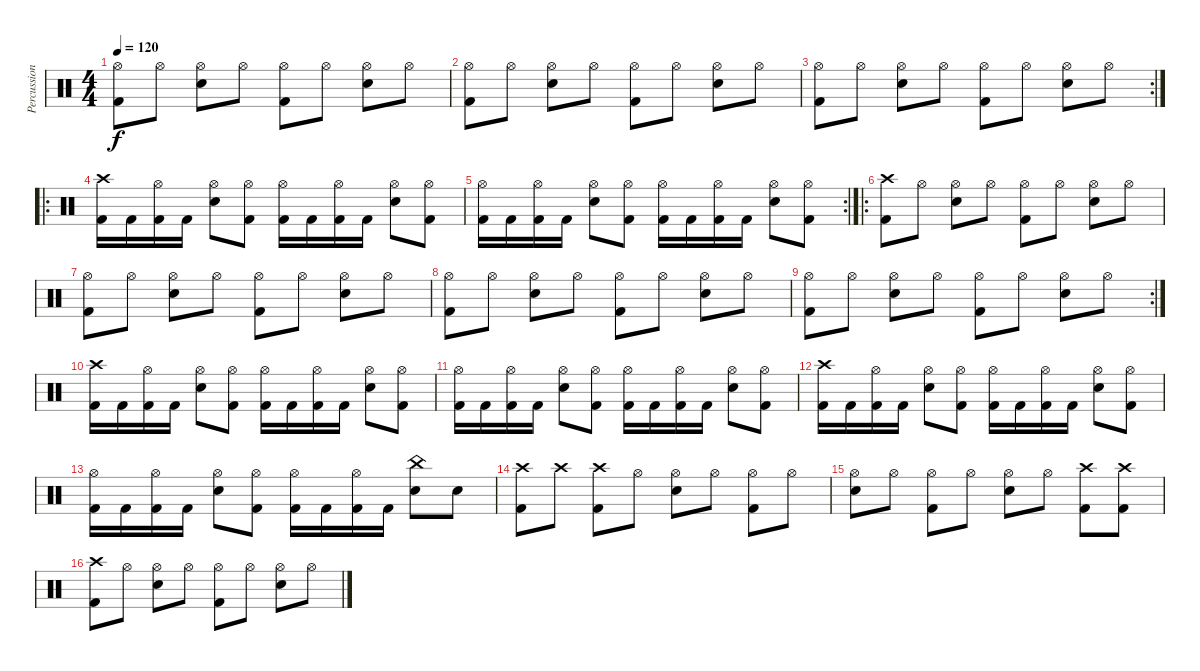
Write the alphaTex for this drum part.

\track ("Percussion" "Percussion") {instrument percussion}
\staff {score}
\articulation defaults
\ts (4 4)
\tempo 120
\clef neutral
\ks c
("Hi-Hat (open)" "Kick (hit) 2").8{dy f} "Hi-Hat (open)".8 ("Hi-Hat (open)" "Snare (hit) 2").8 "Hi-Hat (open)".8 ("Hi-Hat (open)" "Kick (hit) 2").8 "Hi-Hat (open)".8 ("Hi-Hat (open)" "Snare (hit) 2").8 "Hi-Hat (open)".8 |
("Hi-Hat (open)" "Kick (hit) 2").8 "Hi-Hat (open)".8 ("Hi-Hat (open)" "Snare (hit) 2").8 "Hi-Hat (open)".8 ("Hi-Hat (open)" "Kick (hit) 2").8 "Hi-Hat (open)".8 ("Hi-Hat (open)" "Snare (hit) 2").8 "Hi-Hat (open)".8 |
\rc 2
("Hi-Hat (open)" "Kick (hit) 2").8 "Hi-Hat (open)".8 ("Hi-Hat (open)" "Snare (hit) 2").8 "Hi-Hat (open)".8 ("Hi-Hat (open)" "Kick (hit) 2").8 "Hi-Hat (open)".8 ("Hi-Hat (open)" "Snare (hit) 2").8 "Hi-Hat (open)".8 |
\ro
("Crash high (hit)" "Kick (hit) 2").16 "Kick (hit) 2".16 ("Hi-Hat (open)" "Kick (hit) 2").16 "Kick (hit) 2".16 ("Hi-Hat (open)" "Snare (hit) 2").8 ("Hi-Hat (open)" "Kick (hit) 2").8 ("Hi-Hat (open)" "Kick (hit) 2").16 "Kick (hit) 2".16 ("Hi-Hat (open)" "Kick (hit) 2").16 "Kick (hit) 2".16 ("Hi-Hat (open)" "Snare (hit) 2").8 ("Hi-Hat (open)" "Kick (hit) 2").8 |
\rc 2
("Hi-Hat (open)" "Kick (hit) 2").16 "Kick (hit) 2".16 ("Hi-Hat (open)" "Kick (hit) 2").16 "Kick (hit) 2".16 ("Hi-Hat (open)" "Snare (hit) 2").8 ("Hi-Hat (open)" "Kick (hit) 2").8 ("Hi-Hat (open)" "Kick (hit) 2").16 "Kick (hit) 2".16 ("Hi-Hat (open)" "Kick (hit) 2").16 "Kick (hit) 2".16 ("Hi-Hat (open)" "Snare (hit) 2").8 ("Hi-Hat (open)" "Kick (hit) 2").8 |
\ro
("Crash high (hit)" "Kick (hit) 2").8 "Hi-Hat (open)".8 ("Hi-Hat (open)" "Snare (hit) 2").8 "Hi-Hat (open)".8 ("Hi-Hat (open)" "Kick (hit) 2").8 "Hi-Hat (open)".8 ("Hi-Hat (open)" "Snare (hit) 2").8 "Hi-Hat (open)".8 |
("Hi-Hat (open)" "Kick (hit) 2").8 "Hi-Hat (open)".8 ("Hi-Hat (open)" "Snare (hit) 2").8 "Hi-Hat (open)".8 ("Hi-Hat (open)" "Kick (hit) 2").8 "Hi-Hat (open)".8 ("Hi-Hat (open)" "Snare (hit) 2").8 "Hi-Hat (open)".8 |
("Hi-Hat (open)" "Kick (hit) 2").8 "Hi-Hat (open)".8 ("Hi-Hat (open)" "Snare (hit) 2").8 "Hi-Hat (open)".8 ("Hi-Hat (open)" "Kick (hit) 2").8 "Hi-Hat (open)".8 ("Hi-Hat (open)" "Snare (hit) 2").8 "Hi-Hat (open)".8 |
\rc 2
("Hi-Hat (open)" "Kick (hit) 2").8 "Hi-Hat (open)".8 ("Hi-Hat (open)" "Snare (hit) 2").8 "Hi-Hat (open)".8 ("Hi-Hat (open)" "Kick (hit) 2").8 "Hi-Hat (open)".8 ("Hi-Hat (open)" "Snare (hit) 2").8 "Hi-Hat (open)".8 |
("Crash high (hit)" "Kick (hit) 2").16 "Kick (hit) 2".16 ("Hi-Hat (open)" "Kick (hit) 2").16 "Kick (hit) 2".16 ("Hi-Hat (open)" "Snare (hit) 2").8 ("Hi-Hat (open)" "Kick (hit) 2").8 ("Hi-Hat (open)" "Kick (hit) 2").16 "Kick (hit) 2".16 ("Hi-Hat (open)" "Kick (hit) 2").16 "Kick (hit) 2".16 ("Hi-Hat (open)" "Snare (hit) 2").8 ("Hi-Hat (open)" "Kick (hit) 2").8 |
("Hi-Hat (open)" "Kick (hit) 2").16 "Kick (hit) 2".16 ("Hi-Hat (open)" "Kick (hit) 2").16 "Kick (hit) 2".16 ("Hi-Hat (open)" "Snare (hit) 2").8 ("Hi-Hat (open)" "Kick (hit) 2").8 ("Hi-Hat (open)" "Kick (hit) 2").16 "Kick (hit) 2".16 ("Hi-Hat (open)" "Kick (hit) 2").16 "Kick (hit) 2".16 ("Hi-Hat (open)" "Snare (hit) 2").8 ("Hi-Hat (open)" "Kick (hit) 2").8 |
("Crash high (hit)" "Kick (hit) 2").16 "Kick (hit) 2".16 ("Hi-Hat (open)" "Kick (hit) 2").16 "Kick (hit) 2".16 ("Hi-Hat (open)" "Snare (hit) 2").8 ("Hi-Hat (open)" "Kick (hit) 2").8 ("Hi-Hat (open)" "Kick (hit) 2").16 "Kick (hit) 2".16 ("Hi-Hat (open)" "Kick (hit) 2").16 "Kick (hit) 2".16 ("Hi-Hat (open)" "Snare (hit) 2").8 ("Hi-Hat (open)" "Kick (hit) 2").8 |
("Hi-Hat (open)" "Kick (hit) 2").16 "Kick (hit) 2".16 ("Hi-Hat (open)" "Kick (hit) 2").16 "Kick (hit) 2".16 ("Hi-Hat (open)" "Snare (hit) 2").8 ("Hi-Hat (open)" "Kick (hit) 2").8 ("Hi-Hat (open)" "Kick (hit) 2").16 "Kick (hit) 2".16 ("Hi-Hat (open)" "Kick (hit) 2").16 "Kick (hit) 2".16 ("China (hit)" "Snare (hit) 2").8 "Snare (hit) 2".8 |
("Crash high (hit)" "Kick (hit) 2").8 "Crash high (hit)".8 ("Crash high (hit)" "Kick (hit) 2").8 "Hi-Hat (open)".8 ("Hi-Hat (open)" "Snare (hit) 2").8 "Hi-Hat (open)".8 ("Hi-Hat (open)" "Kick (hit) 2").8 "Hi-Hat (open)".8 |
("Hi-Hat (open)" "Snare (hit) 2").8 "Hi-Hat (open)".8 ("Hi-Hat (open)" "Kick (hit) 2").8 "Hi-Hat (open)".8 ("Hi-Hat (open)" "Snare (hit) 2").8 "Hi-Hat (open)".8 ("Crash high (hit)" "Kick (hit) 2").8 ("Crash high (hit)" "Kick (hit) 2").8 |
("Crash high (hit)" "Kick (hit) 2").8 "Hi-Hat (open)".8 ("Hi-Hat (open)" "Snare (hit) 2").8 "Hi-Hat (open)".8 ("Hi-Hat (open)" "Kick (hit) 2").8 "Hi-Hat (open)".8 ("Hi-Hat (open)" "Snare (hit) 2").8 "Hi-Hat (open)".8
